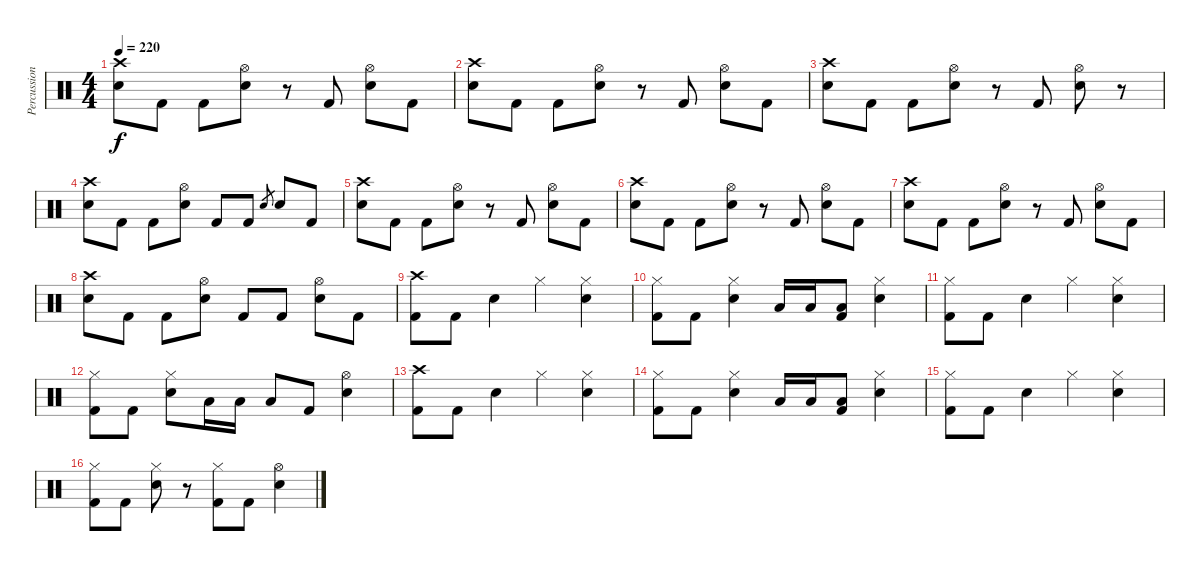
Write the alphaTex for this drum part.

\track ("Percussion" "Percussion") {instrument percussion}
\staff {score}
\articulation defaults
\ts (4 4)
\tempo 220
\clef neutral
\ks c
("Crash high (hit)" "Electric Snare (hit)").8{dy f} "Kick (hit) 2".8 "Kick (hit) 2".8 ("Hi-Hat (open)" "Electric Snare (hit)").8 r.8 "Kick (hit) 2".8 ("Hi-Hat (open)" "Electric Snare (hit)").8 "Kick (hit) 2".8 |
("Crash high (hit)" "Electric Snare (hit)").8 "Kick (hit) 2".8 "Kick (hit) 2".8 ("Hi-Hat (open)" "Electric Snare (hit)").8 r.8 "Kick (hit) 2".8 ("Hi-Hat (open)" "Electric Snare (hit)").8 "Kick (hit) 2".8 |
("Crash high (hit)" "Electric Snare (hit)").8 "Kick (hit) 2".8 "Kick (hit) 2".8 ("Hi-Hat (open)" "Electric Snare (hit)").8 r.8 "Kick (hit) 2".8 ("Hi-Hat (open)" "Electric Snare (hit)").8 r.8 |
("Crash high (hit)" "Electric Snare (hit)").8 "Kick (hit) 2".8 "Kick (hit) 2".8 ("Hi-Hat (open)" "Electric Snare (hit)").8 "Kick (hit) 2".8 "Kick (hit) 2".8 "Electric Snare (hit)".8{gr} "Electric Snare (hit)".8 "Kick (hit) 2".8 |
("Crash high (hit)" "Electric Snare (hit)").8 "Kick (hit) 2".8 "Kick (hit) 2".8 ("Hi-Hat (open)" "Electric Snare (hit)").8 r.8 "Kick (hit) 2".8 ("Hi-Hat (open)" "Electric Snare (hit)").8 "Kick (hit) 2".8 |
("Crash high (hit)" "Electric Snare (hit)").8 "Kick (hit) 2".8 "Kick (hit) 2".8 ("Hi-Hat (open)" "Electric Snare (hit)").8 r.8 "Kick (hit) 2".8 ("Hi-Hat (open)" "Electric Snare (hit)").8 "Kick (hit) 2".8 |
("Crash high (hit)" "Electric Snare (hit)").8 "Kick (hit) 2".8 "Kick (hit) 2".8 ("Hi-Hat (open)" "Electric Snare (hit)").8 r.8 "Kick (hit) 2".8 ("Hi-Hat (open)" "Electric Snare (hit)").8 "Kick (hit) 2".8 |
("Crash high (hit)" "Electric Snare (hit)").8 "Kick (hit) 2".8 "Kick (hit) 2".8 ("Hi-Hat (open)" "Electric Snare (hit)").8 "Kick (hit) 2".8 "Kick (hit) 2".8 ("Hi-Hat (open)" "Electric Snare (hit)").8 "Kick (hit) 2".8 |
("Crash high (hit)" "Kick (hit) 2").8 "Kick (hit) 2".8 "Electric Snare (hit)".4 "Hi-Hat (closed)".4 ("Hi-Hat (closed)" "Electric Snare (hit)").4 |
("Hi-Hat (closed)" "Kick (hit) 2").8 "Kick (hit) 2".8 ("Hi-Hat (closed)" "Electric Snare (hit)").4 "Low Tom (hit)".16 "Low Tom (hit)".16 ("Low Floor Tom (hit)" "Kick (hit) 2").8 ("Hi-Hat (closed)" "Electric Snare (hit)").4 |
("Hi-Hat (closed)" "Kick (hit) 2").8 "Kick (hit) 2".8 "Electric Snare (hit)".4 "Hi-Hat (closed)".4 ("Hi-Hat (closed)" "Electric Snare (hit)").4 |
("Hi-Hat (closed)" "Kick (hit) 2").8 "Kick (hit) 2".8 ("Hi-Hat (closed)" "Electric Snare (hit)").8 "Low Tom (hit)".16 "Low Tom (hit)".16 "Low Floor Tom (hit)".8 "Kick (hit) 2".8 ("Hi-Hat (open)" "Electric Snare (hit)").4 |
("Crash high (hit)" "Kick (hit) 2").8 "Kick (hit) 2".8 "Electric Snare (hit)".4 "Hi-Hat (closed)".4 ("Hi-Hat (closed)" "Electric Snare (hit)").4 |
("Hi-Hat (closed)" "Kick (hit) 2").8 "Kick (hit) 2".8 ("Hi-Hat (closed)" "Electric Snare (hit)").4 "Low Tom (hit)".16 "Low Tom (hit)".16 ("Low Floor Tom (hit)" "Kick (hit) 2").8 ("Hi-Hat (closed)" "Electric Snare (hit)").4 |
("Hi-Hat (closed)" "Kick (hit) 2").8 "Kick (hit) 2".8 "Electric Snare (hit)".4 "Hi-Hat (closed)".4 ("Hi-Hat (closed)" "Electric Snare (hit)").4 |
("Hi-Hat (closed)" "Kick (hit) 2").8 "Kick (hit) 2".8 ("Hi-Hat (closed)" "Electric Snare (hit)").8 r.8 ("Hi-Hat (closed)" "Kick (hit) 2").8 "Kick (hit) 2".8 ("Hi-Hat (open)" "Electric Snare (hit)").4
